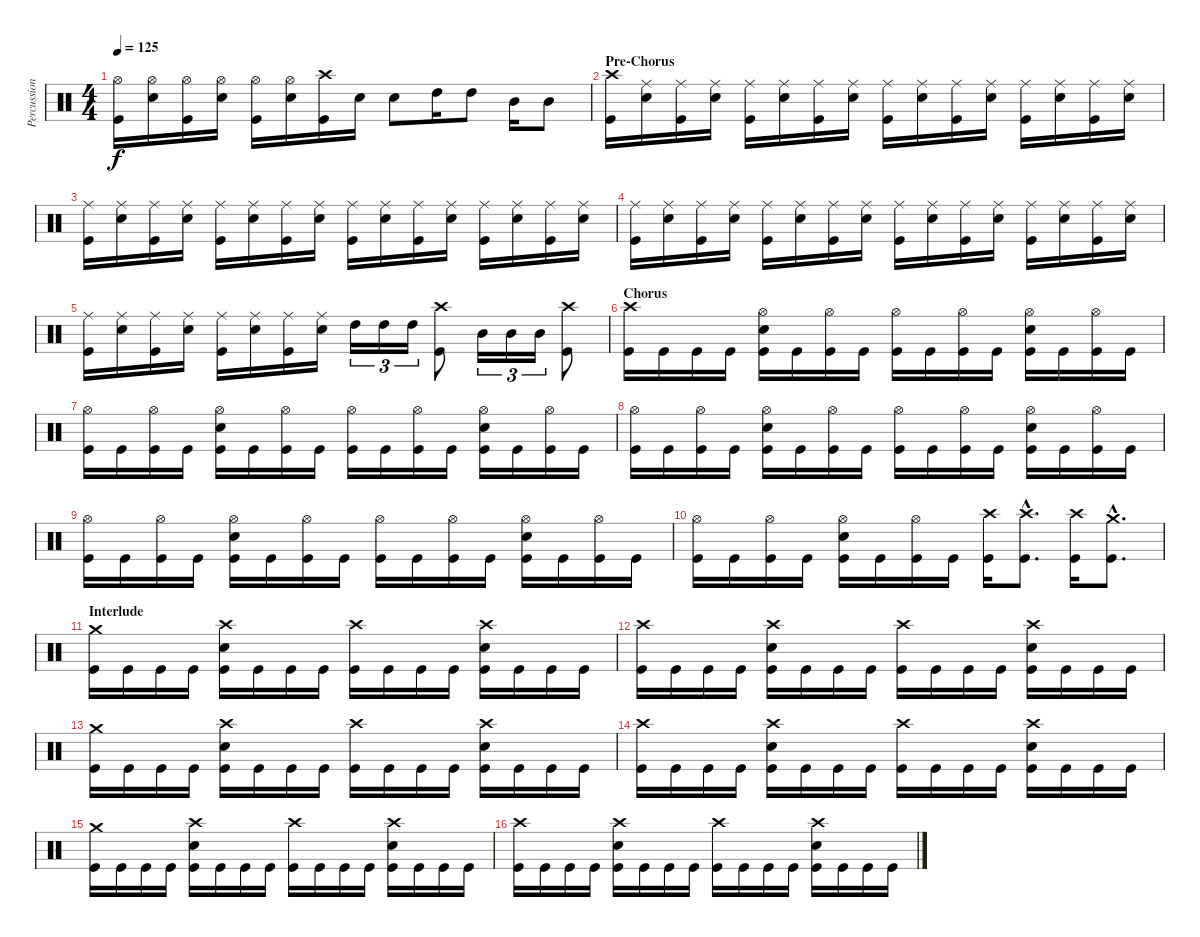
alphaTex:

\track ("Percussion" "Percussion") {instrument percussion}
\staff {score}
\articulation defaults
\ts (4 4)
\tempo 125
\clef neutral
\ks c
("Hi-Hat (open)" "Kick (hit)").16{dy f} ("Hi-Hat (open)" "Electric Snare (hit)").16 ("Hi-Hat (open)" "Kick (hit)").16 ("Hi-Hat (open)" "Electric Snare (hit)").16 ("Hi-Hat (open)" "Kick (hit)").16 ("Hi-Hat (open)" "Electric Snare (hit)").16 ("Crash high (hit)" "Kick (hit)").16 "Electric Snare (hit)".16 "Electric Snare (hit)".8 "High Tom (hit)".16 "High Tom (hit)".8 "Mid Tom (hit)".16 "Mid Tom (hit)".8 |
\section ("" "Pre-Chorus")
("Crash high (hit)" "Kick (hit)").16 ("Ride (middle)" "Electric Snare (hit)").16 ("Ride (middle)" "Kick (hit)").16 ("Ride (middle)" "Electric Snare (hit)").16 ("Ride (middle)" "Kick (hit)").16 ("Ride (middle)" "Electric Snare (hit)").16 ("Ride (middle)" "Kick (hit)").16 ("Ride (middle)" "Electric Snare (hit)").16 ("Ride (middle)" "Kick (hit)").16 ("Ride (middle)" "Electric Snare (hit)").16 ("Ride (middle)" "Kick (hit)").16 ("Ride (middle)" "Electric Snare (hit)").16 ("Ride (middle)" "Kick (hit)").16 ("Ride (middle)" "Electric Snare (hit)").16 ("Ride (middle)" "Kick (hit)").16 ("Ride (middle)" "Electric Snare (hit)").16 |
("Ride (middle)" "Kick (hit)").16 ("Ride (middle)" "Electric Snare (hit)").16 ("Ride (middle)" "Kick (hit)").16 ("Ride (middle)" "Electric Snare (hit)").16 ("Ride (middle)" "Kick (hit)").16 ("Ride (middle)" "Electric Snare (hit)").16 ("Ride (middle)" "Kick (hit)").16 ("Ride (middle)" "Electric Snare (hit)").16 ("Ride (middle)" "Kick (hit)").16 ("Ride (middle)" "Electric Snare (hit)").16 ("Ride (middle)" "Kick (hit)").16 ("Ride (middle)" "Electric Snare (hit)").16 ("Ride (middle)" "Kick (hit)").16 ("Ride (middle)" "Electric Snare (hit)").16 ("Ride (middle)" "Kick (hit)").16 ("Ride (middle)" "Electric Snare (hit)").16 |
("Ride (middle)" "Kick (hit)").16 ("Ride (middle)" "Electric Snare (hit)").16 ("Ride (middle)" "Kick (hit)").16 ("Ride (middle)" "Electric Snare (hit)").16 ("Ride (middle)" "Kick (hit)").16 ("Ride (middle)" "Electric Snare (hit)").16 ("Ride (middle)" "Kick (hit)").16 ("Ride (middle)" "Electric Snare (hit)").16 ("Ride (middle)" "Kick (hit)").16 ("Ride (middle)" "Electric Snare (hit)").16 ("Ride (middle)" "Kick (hit)").16 ("Ride (middle)" "Electric Snare (hit)").16 ("Ride (middle)" "Kick (hit)").16 ("Ride (middle)" "Electric Snare (hit)").16 ("Ride (middle)" "Kick (hit)").16 ("Ride (middle)" "Electric Snare (hit)").16 |
("Ride (middle)" "Kick (hit)").16 ("Ride (middle)" "Electric Snare (hit)").16 ("Ride (middle)" "Kick (hit)").16 ("Ride (middle)" "Electric Snare (hit)").16 ("Ride (middle)" "Kick (hit)").16 ("Ride (middle)" "Electric Snare (hit)").16 ("Ride (middle)" "Kick (hit)").16 ("Ride (middle)" "Electric Snare (hit)").16 "High Tom (hit)".16{tu (3 2)} "High Tom (hit)".16{tu (3 2)} "High Tom (hit)".16{tu (3 2)} ("Crash high (hit)" "Kick (hit)").8 "Mid Tom (hit)".16{tu (3 2)} "Mid Tom (hit)".16{tu (3 2)} "Mid Tom (hit)".16{tu (3 2)} ("Crash high (hit)" "Kick (hit)").8 |
\section ("" "Chorus")
("Crash high (hit)" "Kick (hit)").16 "Kick (hit)".16 "Kick (hit)".16 "Kick (hit)".16 ("Hi-Hat (open)" "Electric Snare (hit)" "Kick (hit)").16 "Kick (hit)".16 ("Hi-Hat (open)" "Kick (hit)").16 "Kick (hit)".16 ("Hi-Hat (open)" "Kick (hit)").16 "Kick (hit)".16 ("Hi-Hat (open)" "Kick (hit)").16 "Kick (hit)".16 ("Hi-Hat (open)" "Electric Snare (hit)" "Kick (hit)").16 "Kick (hit)".16 ("Hi-Hat (open)" "Kick (hit)").16 "Kick (hit)".16 |
("Hi-Hat (open)" "Kick (hit)").16 "Kick (hit)".16 ("Hi-Hat (open)" "Kick (hit)").16 "Kick (hit)".16 ("Hi-Hat (open)" "Electric Snare (hit)" "Kick (hit)").16 "Kick (hit)".16 ("Hi-Hat (open)" "Kick (hit)").16 "Kick (hit)".16 ("Hi-Hat (open)" "Kick (hit)").16 "Kick (hit)".16 ("Hi-Hat (open)" "Kick (hit)").16 "Kick (hit)".16 ("Hi-Hat (open)" "Electric Snare (hit)" "Kick (hit)").16 "Kick (hit)".16 ("Hi-Hat (open)" "Kick (hit)").16 "Kick (hit)".16 |
("Hi-Hat (open)" "Kick (hit)").16 "Kick (hit)".16 ("Hi-Hat (open)" "Kick (hit)").16 "Kick (hit)".16 ("Hi-Hat (open)" "Electric Snare (hit)" "Kick (hit)").16 "Kick (hit)".16 ("Hi-Hat (open)" "Kick (hit)").16 "Kick (hit)".16 ("Hi-Hat (open)" "Kick (hit)").16 "Kick (hit)".16 ("Hi-Hat (open)" "Kick (hit)").16 "Kick (hit)".16 ("Hi-Hat (open)" "Electric Snare (hit)" "Kick (hit)").16 "Kick (hit)".16 ("Hi-Hat (open)" "Kick (hit)").16 "Kick (hit)".16 |
("Hi-Hat (open)" "Kick (hit)").16 "Kick (hit)".16 ("Hi-Hat (open)" "Kick (hit)").16 "Kick (hit)".16 ("Hi-Hat (open)" "Electric Snare (hit)" "Kick (hit)").16 "Kick (hit)".16 ("Hi-Hat (open)" "Kick (hit)").16 "Kick (hit)".16 ("Hi-Hat (open)" "Kick (hit)").16 "Kick (hit)".16 ("Hi-Hat (open)" "Kick (hit)").16 "Kick (hit)".16 ("Hi-Hat (open)" "Electric Snare (hit)" "Kick (hit)").16 "Kick (hit)".16 ("Hi-Hat (open)" "Kick (hit)").16 "Kick (hit)".16 |
("Hi-Hat (open)" "Kick (hit)").16 "Kick (hit)".16 ("Hi-Hat (open)" "Kick (hit)").16 "Kick (hit)".16 ("Hi-Hat (open)" "Electric Snare (hit)" "Kick (hit)").16 "Kick (hit)".16 ("Hi-Hat (open)" "Kick (hit)").16 "Kick (hit)".16 ("Crash high (hit)" "Kick (hit)").16 ("Crash high (hit)"{hac} "Kick (hit)"{hac}).8{d} ("Crash high (hit)" "Kick (hit)").16 ("Crash medium (hit)"{hac} "Kick (hit)"{hac}).8{d} |
\section ("" "Interlude")
("Crash medium (hit)" "Kick (hit)").16 "Kick (hit)".16 "Kick (hit)".16 "Kick (hit)".16 ("Crash high (hit)" "Electric Snare (hit)" "Kick (hit)").16 "Kick (hit)".16 "Kick (hit)".16 "Kick (hit)".16 ("Crash high (hit)" "Kick (hit)").16 "Kick (hit)".16 "Kick (hit)".16 "Kick (hit)".16 ("Crash high (hit)" "Electric Snare (hit)" "Kick (hit)").16 "Kick (hit)".16 "Kick (hit)".16 "Kick (hit)".16 |
("Crash high (hit)" "Kick (hit)").16 "Kick (hit)".16 "Kick (hit)".16 "Kick (hit)".16 ("Crash high (hit)" "Electric Snare (hit)" "Kick (hit)").16 "Kick (hit)".16 "Kick (hit)".16 "Kick (hit)".16 ("Crash high (hit)" "Kick (hit)").16 "Kick (hit)".16 "Kick (hit)".16 "Kick (hit)".16 ("Crash high (hit)" "Electric Snare (hit)" "Kick (hit)").16 "Kick (hit)".16 "Kick (hit)".16 "Kick (hit)".16 |
("Crash medium (hit)" "Kick (hit)").16 "Kick (hit)".16 "Kick (hit)".16 "Kick (hit)".16 ("Crash high (hit)" "Electric Snare (hit)" "Kick (hit)").16 "Kick (hit)".16 "Kick (hit)".16 "Kick (hit)".16 ("Crash high (hit)" "Kick (hit)").16 "Kick (hit)".16 "Kick (hit)".16 "Kick (hit)".16 ("Crash high (hit)" "Electric Snare (hit)" "Kick (hit)").16 "Kick (hit)".16 "Kick (hit)".16 "Kick (hit)".16 |
("Crash high (hit)" "Kick (hit)").16 "Kick (hit)".16 "Kick (hit)".16 "Kick (hit)".16 ("Crash high (hit)" "Electric Snare (hit)" "Kick (hit)").16 "Kick (hit)".16 "Kick (hit)".16 "Kick (hit)".16 ("Crash high (hit)" "Kick (hit)").16 "Kick (hit)".16 "Kick (hit)".16 "Kick (hit)".16 ("Crash high (hit)" "Electric Snare (hit)" "Kick (hit)").16 "Kick (hit)".16 "Kick (hit)".16 "Kick (hit)".16 |
("Crash medium (hit)" "Kick (hit)").16 "Kick (hit)".16 "Kick (hit)".16 "Kick (hit)".16 ("Crash high (hit)" "Electric Snare (hit)" "Kick (hit)").16 "Kick (hit)".16 "Kick (hit)".16 "Kick (hit)".16 ("Crash high (hit)" "Kick (hit)").16 "Kick (hit)".16 "Kick (hit)".16 "Kick (hit)".16 ("Crash high (hit)" "Electric Snare (hit)" "Kick (hit)").16 "Kick (hit)".16 "Kick (hit)".16 "Kick (hit)".16 |
("Crash high (hit)" "Kick (hit)").16 "Kick (hit)".16 "Kick (hit)".16 "Kick (hit)".16 ("Crash high (hit)" "Electric Snare (hit)" "Kick (hit)").16 "Kick (hit)".16 "Kick (hit)".16 "Kick (hit)".16 ("Crash high (hit)" "Kick (hit)").16 "Kick (hit)".16 "Kick (hit)".16 "Kick (hit)".16 ("Crash high (hit)" "Electric Snare (hit)" "Kick (hit)").16 "Kick (hit)".16 "Kick (hit)".16 "Kick (hit)".16
